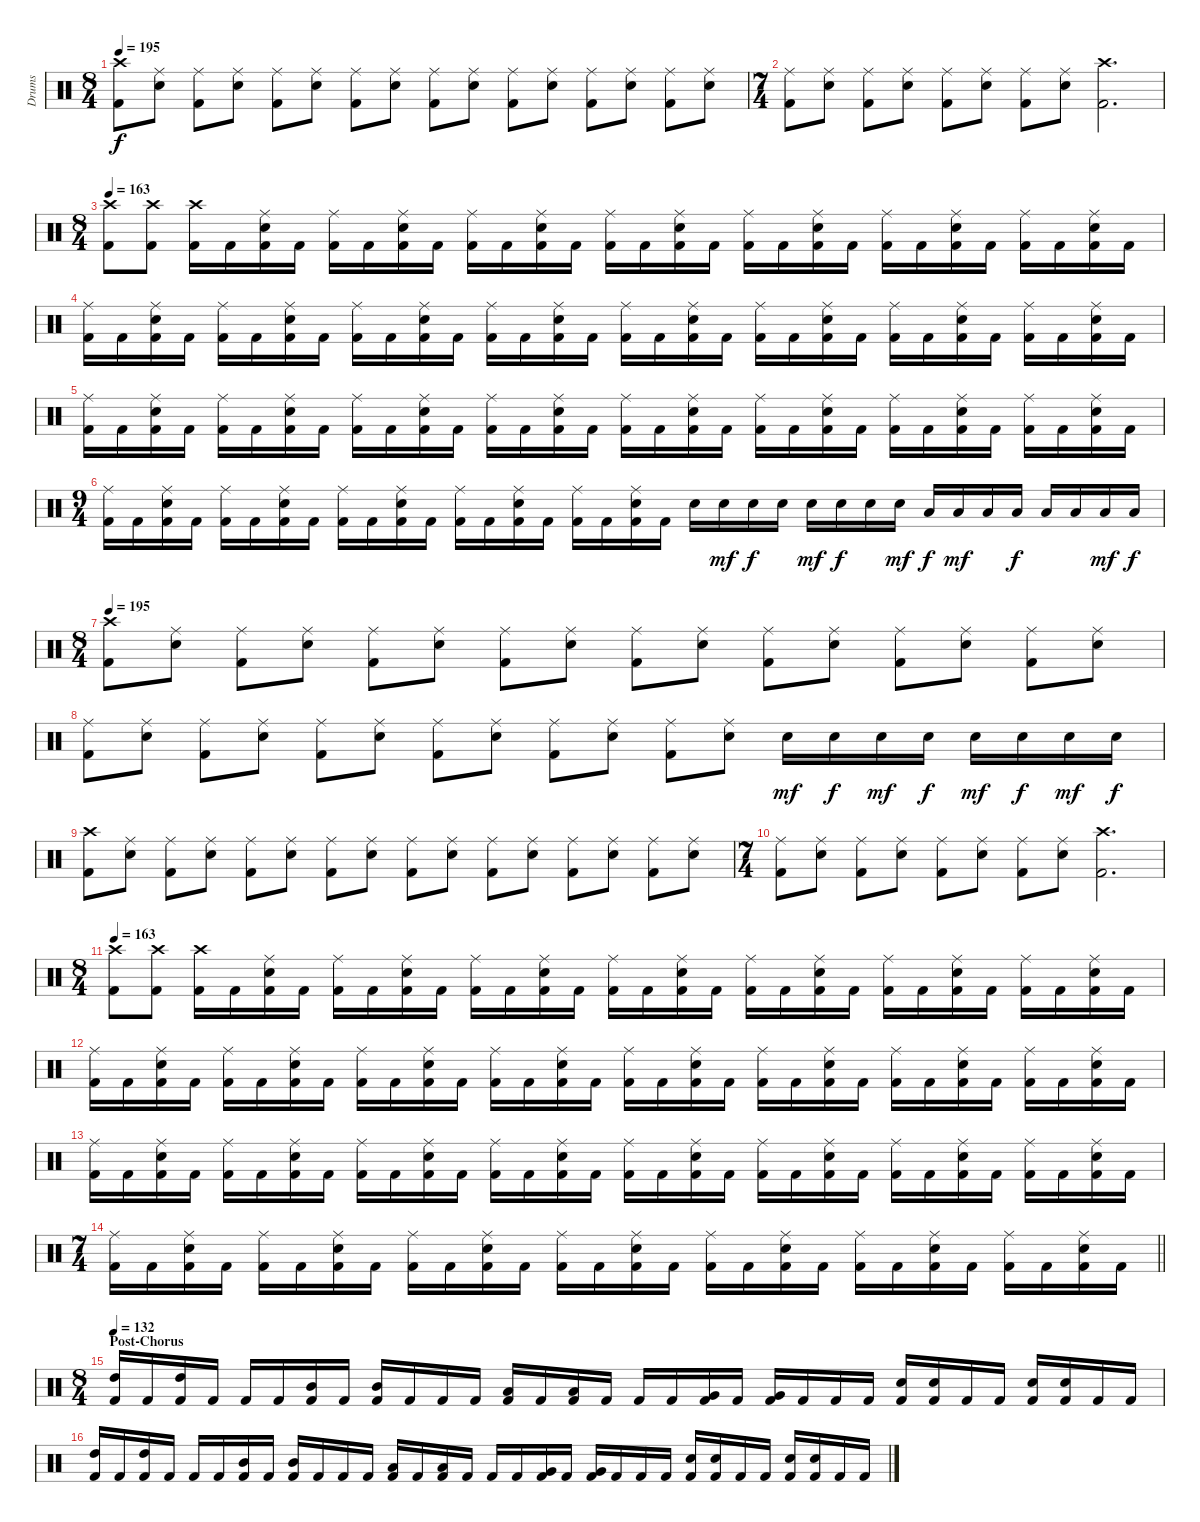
\track ("Drums" "Drums") {instrument percussion}
\staff {score}
\articulation defaults
\ts (8 4)
\tempo 195
\clef neutral
\ks c
("Crash high (hit)" "Kick (hit) 2").8{dy f} ("Ride (middle)" "Snare (hit) 2").8 ("Ride (middle)" "Kick (hit) 2").8 ("Ride (middle)" "Snare (hit) 2").8 ("Ride (middle)" "Kick (hit) 2").8 ("Ride (middle)" "Snare (hit) 2").8 ("Ride (middle)" "Kick (hit) 2").8 ("Ride (middle)" "Snare (hit) 2").8 ("Ride (middle)" "Kick (hit) 2").8 ("Ride (middle)" "Snare (hit) 2").8 ("Ride (middle)" "Kick (hit) 2").8 ("Ride (middle)" "Snare (hit) 2").8 ("Ride (middle)" "Kick (hit) 2").8 ("Ride (middle)" "Snare (hit) 2").8 ("Ride (middle)" "Kick (hit) 2").8 ("Ride (middle)" "Snare (hit) 2").8 |
\ts (7 4)
("Ride (middle)" "Kick (hit) 2").8 ("Ride (middle)" "Snare (hit) 2").8 ("Ride (middle)" "Kick (hit) 2").8 ("Ride (middle)" "Snare (hit) 2").8 ("Ride (middle)" "Kick (hit) 2").8 ("Ride (middle)" "Snare (hit) 2").8 ("Ride (middle)" "Kick (hit) 2").8 ("Ride (middle)" "Snare (hit) 2").8 ("Crash high (hit)" "Kick (hit) 2").2{d} |
\ts (8 4)
\tempo 163
("Crash high (hit)" "Kick (hit) 2").8 ("Crash high (hit)" "Kick (hit) 2").8 ("Crash high (hit)" "Kick (hit) 2").16 "Kick (hit) 2".16 ("Ride (middle)" "Snare (hit) 2" "Kick (hit) 2").16 "Kick (hit) 2".16 ("Ride (middle)" "Kick (hit) 2").16 "Kick (hit) 2".16 ("Ride (middle)" "Snare (hit) 2" "Kick (hit) 2").16 "Kick (hit) 2".16 ("Ride (middle)" "Kick (hit) 2").16 "Kick (hit) 2".16 ("Ride (middle)" "Snare (hit) 2" "Kick (hit) 2").16 "Kick (hit) 2".16 ("Ride (middle)" "Kick (hit) 2").16 "Kick (hit) 2".16 ("Ride (middle)" "Snare (hit) 2" "Kick (hit) 2").16 "Kick (hit) 2".16 ("Ride (middle)" "Kick (hit) 2").16 "Kick (hit) 2".16 ("Ride (middle)" "Snare (hit) 2" "Kick (hit) 2").16 "Kick (hit) 2".16 ("Ride (middle)" "Kick (hit) 2").16 "Kick (hit) 2".16 ("Ride (middle)" "Snare (hit) 2" "Kick (hit) 2").16 "Kick (hit) 2".16 ("Ride (middle)" "Kick (hit) 2").16 "Kick (hit) 2".16 ("Ride (middle)" "Snare (hit) 2" "Kick (hit) 2").16 "Kick (hit) 2".16 |
("Ride (middle)" "Kick (hit) 2").16 "Kick (hit) 2".16 ("Ride (middle)" "Snare (hit) 2" "Kick (hit) 2").16 "Kick (hit) 2".16 ("Ride (middle)" "Kick (hit) 2").16 "Kick (hit) 2".16 ("Ride (middle)" "Snare (hit) 2" "Kick (hit) 2").16 "Kick (hit) 2".16 ("Ride (middle)" "Kick (hit) 2").16 "Kick (hit) 2".16 ("Ride (middle)" "Snare (hit) 2" "Kick (hit) 2").16 "Kick (hit) 2".16 ("Ride (middle)" "Kick (hit) 2").16 "Kick (hit) 2".16 ("Ride (middle)" "Snare (hit) 2" "Kick (hit) 2").16 "Kick (hit) 2".16 ("Ride (middle)" "Kick (hit) 2").16 "Kick (hit) 2".16 ("Ride (middle)" "Snare (hit) 2" "Kick (hit) 2").16 "Kick (hit) 2".16 ("Ride (middle)" "Kick (hit) 2").16 "Kick (hit) 2".16 ("Ride (middle)" "Snare (hit) 2" "Kick (hit) 2").16 "Kick (hit) 2".16 ("Ride (middle)" "Kick (hit) 2").16 "Kick (hit) 2".16 ("Ride (middle)" "Snare (hit) 2" "Kick (hit) 2").16 "Kick (hit) 2".16 ("Ride (middle)" "Kick (hit) 2").16 "Kick (hit) 2".16 ("Ride (middle)" "Snare (hit) 2" "Kick (hit) 2").16 "Kick (hit) 2".16 |
("Ride (middle)" "Kick (hit) 2").16 "Kick (hit) 2".16 ("Ride (middle)" "Snare (hit) 2" "Kick (hit) 2").16 "Kick (hit) 2".16 ("Ride (middle)" "Kick (hit) 2").16 "Kick (hit) 2".16 ("Ride (middle)" "Snare (hit) 2" "Kick (hit) 2").16 "Kick (hit) 2".16 ("Ride (middle)" "Kick (hit) 2").16 "Kick (hit) 2".16 ("Ride (middle)" "Snare (hit) 2" "Kick (hit) 2").16 "Kick (hit) 2".16 ("Ride (middle)" "Kick (hit) 2").16 "Kick (hit) 2".16 ("Ride (middle)" "Snare (hit) 2" "Kick (hit) 2").16 "Kick (hit) 2".16 ("Ride (middle)" "Kick (hit) 2").16 "Kick (hit) 2".16 ("Ride (middle)" "Snare (hit) 2" "Kick (hit) 2").16 "Kick (hit) 2".16 ("Ride (middle)" "Kick (hit) 2").16 "Kick (hit) 2".16 ("Ride (middle)" "Snare (hit) 2" "Kick (hit) 2").16 "Kick (hit) 2".16 ("Ride (middle)" "Kick (hit) 2").16 "Kick (hit) 2".16 ("Ride (middle)" "Snare (hit) 2" "Kick (hit) 2").16 "Kick (hit) 2".16 ("Ride (middle)" "Kick (hit) 2").16 "Kick (hit) 2".16 ("Ride (middle)" "Snare (hit) 2" "Kick (hit) 2").16 "Kick (hit) 2".16 |
\ts (9 4)
("Ride (middle)" "Kick (hit) 2").16 "Kick (hit) 2".16 ("Ride (middle)" "Snare (hit) 2" "Kick (hit) 2").16 "Kick (hit) 2".16 ("Ride (middle)" "Kick (hit) 2").16 "Kick (hit) 2".16 ("Ride (middle)" "Snare (hit) 2" "Kick (hit) 2").16 "Kick (hit) 2".16 ("Ride (middle)" "Kick (hit) 2").16 "Kick (hit) 2".16 ("Ride (middle)" "Snare (hit) 2" "Kick (hit) 2").16 "Kick (hit) 2".16 ("Ride (middle)" "Kick (hit) 2").16 "Kick (hit) 2".16 ("Ride (middle)" "Snare (hit) 2" "Kick (hit) 2").16 "Kick (hit) 2".16 ("Ride (middle)" "Kick (hit) 2").16 "Kick (hit) 2".16 ("Ride (middle)" "Snare (hit) 2" "Kick (hit) 2").16 "Kick (hit) 2".16 "Snare (hit) 2".16 "Snare (hit) 2".16{dy mf} "Snare (hit) 2".16{dy f} "Snare (hit) 2".16 "Snare (hit) 2".16{dy mf} "Snare (hit) 2".16{dy f} "Snare (hit) 2".16 "Snare (hit) 2".16{dy mf} "Low Tom (hit)".16{dy f} "Low Tom (hit)".16{dy mf} "Low Tom (hit)".16 "Low Tom (hit)".16{dy f} "Low Tom (hit)".16 "Low Tom (hit)".16 "Low Tom (hit)".16{dy mf} "Low Tom (hit)".16{dy f} |
\ts (8 4)
\tempo 195
("Crash high (hit)" "Kick (hit) 2").8 ("Ride (middle)" "Snare (hit) 2").8 ("Ride (middle)" "Kick (hit) 2").8 ("Ride (middle)" "Snare (hit) 2").8 ("Ride (middle)" "Kick (hit) 2").8 ("Ride (middle)" "Snare (hit) 2").8 ("Ride (middle)" "Kick (hit) 2").8 ("Ride (middle)" "Snare (hit) 2").8 ("Ride (middle)" "Kick (hit) 2").8 ("Ride (middle)" "Snare (hit) 2").8 ("Ride (middle)" "Kick (hit) 2").8 ("Ride (middle)" "Snare (hit) 2").8 ("Ride (middle)" "Kick (hit) 2").8 ("Ride (middle)" "Snare (hit) 2").8 ("Ride (middle)" "Kick (hit) 2").8 ("Ride (middle)" "Snare (hit) 2").8 |
("Ride (middle)" "Kick (hit) 2").8 ("Ride (middle)" "Snare (hit) 2").8 ("Ride (middle)" "Kick (hit) 2").8 ("Ride (middle)" "Snare (hit) 2").8 ("Ride (middle)" "Kick (hit) 2").8 ("Ride (middle)" "Snare (hit) 2").8 ("Ride (middle)" "Kick (hit) 2").8 ("Ride (middle)" "Snare (hit) 2").8 ("Ride (middle)" "Kick (hit) 2").8 ("Ride (middle)" "Snare (hit) 2").8 ("Ride (middle)" "Kick (hit) 2").8 ("Ride (middle)" "Snare (hit) 2").8 "Snare (hit) 2".16{dy mf} "Snare (hit) 2".16{dy f} "Snare (hit) 2".16{dy mf} "Snare (hit) 2".16{dy f} "Snare (hit) 2".16{dy mf} "Snare (hit) 2".16{dy f} "Snare (hit) 2".16{dy mf} "Snare (hit) 2".16{dy f} |
("Crash high (hit)" "Kick (hit) 2").8 ("Ride (middle)" "Snare (hit) 2").8 ("Ride (middle)" "Kick (hit) 2").8 ("Ride (middle)" "Snare (hit) 2").8 ("Ride (middle)" "Kick (hit) 2").8 ("Ride (middle)" "Snare (hit) 2").8 ("Ride (middle)" "Kick (hit) 2").8 ("Ride (middle)" "Snare (hit) 2").8 ("Ride (middle)" "Kick (hit) 2").8 ("Ride (middle)" "Snare (hit) 2").8 ("Ride (middle)" "Kick (hit) 2").8 ("Ride (middle)" "Snare (hit) 2").8 ("Ride (middle)" "Kick (hit) 2").8 ("Ride (middle)" "Snare (hit) 2").8 ("Ride (middle)" "Kick (hit) 2").8 ("Ride (middle)" "Snare (hit) 2").8 |
\ts (7 4)
("Ride (middle)" "Kick (hit) 2").8 ("Ride (middle)" "Snare (hit) 2").8 ("Ride (middle)" "Kick (hit) 2").8 ("Ride (middle)" "Snare (hit) 2").8 ("Ride (middle)" "Kick (hit) 2").8 ("Ride (middle)" "Snare (hit) 2").8 ("Ride (middle)" "Kick (hit) 2").8 ("Ride (middle)" "Snare (hit) 2").8 ("Crash high (hit)" "Kick (hit) 2").2{d} |
\ts (8 4)
\tempo 163
("Crash high (hit)" "Kick (hit) 2").8 ("Crash high (hit)" "Kick (hit) 2").8 ("Crash high (hit)" "Kick (hit) 2").16 "Kick (hit) 2".16 ("Ride (middle)" "Snare (hit) 2" "Kick (hit) 2").16 "Kick (hit) 2".16 ("Ride (middle)" "Kick (hit) 2").16 "Kick (hit) 2".16 ("Ride (middle)" "Snare (hit) 2" "Kick (hit) 2").16 "Kick (hit) 2".16 ("Ride (middle)" "Kick (hit) 2").16 "Kick (hit) 2".16 ("Ride (middle)" "Snare (hit) 2" "Kick (hit) 2").16 "Kick (hit) 2".16 ("Ride (middle)" "Kick (hit) 2").16 "Kick (hit) 2".16 ("Ride (middle)" "Snare (hit) 2" "Kick (hit) 2").16 "Kick (hit) 2".16 ("Ride (middle)" "Kick (hit) 2").16 "Kick (hit) 2".16 ("Ride (middle)" "Snare (hit) 2" "Kick (hit) 2").16 "Kick (hit) 2".16 ("Ride (middle)" "Kick (hit) 2").16 "Kick (hit) 2".16 ("Ride (middle)" "Snare (hit) 2" "Kick (hit) 2").16 "Kick (hit) 2".16 ("Ride (middle)" "Kick (hit) 2").16 "Kick (hit) 2".16 ("Ride (middle)" "Snare (hit) 2" "Kick (hit) 2").16 "Kick (hit) 2".16 |
("Ride (middle)" "Kick (hit) 2").16 "Kick (hit) 2".16 ("Ride (middle)" "Snare (hit) 2" "Kick (hit) 2").16 "Kick (hit) 2".16 ("Ride (middle)" "Kick (hit) 2").16 "Kick (hit) 2".16 ("Ride (middle)" "Snare (hit) 2" "Kick (hit) 2").16 "Kick (hit) 2".16 ("Ride (middle)" "Kick (hit) 2").16 "Kick (hit) 2".16 ("Ride (middle)" "Snare (hit) 2" "Kick (hit) 2").16 "Kick (hit) 2".16 ("Ride (middle)" "Kick (hit) 2").16 "Kick (hit) 2".16 ("Ride (middle)" "Snare (hit) 2" "Kick (hit) 2").16 "Kick (hit) 2".16 ("Ride (middle)" "Kick (hit) 2").16 "Kick (hit) 2".16 ("Ride (middle)" "Snare (hit) 2" "Kick (hit) 2").16 "Kick (hit) 2".16 ("Ride (middle)" "Kick (hit) 2").16 "Kick (hit) 2".16 ("Ride (middle)" "Snare (hit) 2" "Kick (hit) 2").16 "Kick (hit) 2".16 ("Ride (middle)" "Kick (hit) 2").16 "Kick (hit) 2".16 ("Ride (middle)" "Snare (hit) 2" "Kick (hit) 2").16 "Kick (hit) 2".16 ("Ride (middle)" "Kick (hit) 2").16 "Kick (hit) 2".16 ("Ride (middle)" "Snare (hit) 2" "Kick (hit) 2").16 "Kick (hit) 2".16 |
("Ride (middle)" "Kick (hit) 2").16 "Kick (hit) 2".16 ("Ride (middle)" "Snare (hit) 2" "Kick (hit) 2").16 "Kick (hit) 2".16 ("Ride (middle)" "Kick (hit) 2").16 "Kick (hit) 2".16 ("Ride (middle)" "Snare (hit) 2" "Kick (hit) 2").16 "Kick (hit) 2".16 ("Ride (middle)" "Kick (hit) 2").16 "Kick (hit) 2".16 ("Ride (middle)" "Snare (hit) 2" "Kick (hit) 2").16 "Kick (hit) 2".16 ("Ride (middle)" "Kick (hit) 2").16 "Kick (hit) 2".16 ("Ride (middle)" "Snare (hit) 2" "Kick (hit) 2").16 "Kick (hit) 2".16 ("Ride (middle)" "Kick (hit) 2").16 "Kick (hit) 2".16 ("Ride (middle)" "Snare (hit) 2" "Kick (hit) 2").16 "Kick (hit) 2".16 ("Ride (middle)" "Kick (hit) 2").16 "Kick (hit) 2".16 ("Ride (middle)" "Snare (hit) 2" "Kick (hit) 2").16 "Kick (hit) 2".16 ("Ride (middle)" "Kick (hit) 2").16 "Kick (hit) 2".16 ("Ride (middle)" "Snare (hit) 2" "Kick (hit) 2").16 "Kick (hit) 2".16 ("Ride (middle)" "Kick (hit) 2").16 "Kick (hit) 2".16 ("Ride (middle)" "Snare (hit) 2" "Kick (hit) 2").16 "Kick (hit) 2".16 |
\ts (7 4)
\barLineRight lightlight
("Ride (middle)" "Kick (hit) 2").16 "Kick (hit) 2".16 ("Ride (middle)" "Snare (hit) 2" "Kick (hit) 2").16 "Kick (hit) 2".16 ("Ride (middle)" "Kick (hit) 2").16 "Kick (hit) 2".16 ("Ride (middle)" "Snare (hit) 2" "Kick (hit) 2").16 "Kick (hit) 2".16 ("Ride (middle)" "Kick (hit) 2").16 "Kick (hit) 2".16 ("Ride (middle)" "Snare (hit) 2" "Kick (hit) 2").16 "Kick (hit) 2".16 ("Ride (middle)" "Kick (hit) 2").16 "Kick (hit) 2".16 ("Ride (middle)" "Snare (hit) 2" "Kick (hit) 2").16 "Kick (hit) 2".16 ("Ride (middle)" "Kick (hit) 2").16 "Kick (hit) 2".16 ("Ride (middle)" "Snare (hit) 2" "Kick (hit) 2").16 "Kick (hit) 2".16 ("Ride (middle)" "Kick (hit) 2").16 "Kick (hit) 2".16 ("Ride (middle)" "Snare (hit) 2" "Kick (hit) 2").16 "Kick (hit) 2".16 ("Ride (middle)" "Kick (hit) 2").16 "Kick (hit) 2".16 ("Ride (middle)" "Snare (hit) 2" "Kick (hit) 2").16 "Kick (hit) 2".16 |
\ts (8 4)
\section ("" "Post-Chorus")
\tempo 132
("High Tom (hit)" "Kick (hit) 2").16 "Kick (hit) 2".16 ("High Tom (hit)" "Kick (hit) 2").16 "Kick (hit) 2".16 "Kick (hit) 2".16 "Kick (hit) 2".16 ("Mid Tom (hit)" "Kick (hit) 2").16 "Kick (hit) 2".16 ("Mid Tom (hit)" "Kick (hit) 2").16 "Kick (hit) 2".16 "Kick (hit) 2".16 "Kick (hit) 2".16 ("Low Tom (hit)" "Kick (hit) 2").16 "Kick (hit) 2".16 ("Low Tom (hit)" "Kick (hit) 2").16 "Kick (hit) 2".16 "Kick (hit) 2".16 "Kick (hit) 2".16 ("Very Low Tom (hit)" "Kick (hit) 2").16 "Kick (hit) 2".16 ("Very Low Tom (hit)" "Kick (hit) 2").16 "Kick (hit) 2".16 "Kick (hit) 2".16 "Kick (hit) 2".16 ("Snare (hit) 2" "Kick (hit) 2").16 ("Snare (hit) 2" "Kick (hit) 2").16 "Kick (hit) 2".16 "Kick (hit) 2".16 ("Snare (hit) 2" "Kick (hit) 2").16 ("Snare (hit) 2" "Kick (hit) 2").16 "Kick (hit) 2".16 "Kick (hit) 2".16 |
("High Tom (hit)" "Kick (hit) 2").16 "Kick (hit) 2".16 ("High Tom (hit)" "Kick (hit) 2").16 "Kick (hit) 2".16 "Kick (hit) 2".16 "Kick (hit) 2".16 ("Mid Tom (hit)" "Kick (hit) 2").16 "Kick (hit) 2".16 ("Mid Tom (hit)" "Kick (hit) 2").16 "Kick (hit) 2".16 "Kick (hit) 2".16 "Kick (hit) 2".16 ("Low Tom (hit)" "Kick (hit) 2").16 "Kick (hit) 2".16 ("Low Tom (hit)" "Kick (hit) 2").16 "Kick (hit) 2".16 "Kick (hit) 2".16 "Kick (hit) 2".16 ("Very Low Tom (hit)" "Kick (hit) 2").16 "Kick (hit) 2".16 ("Very Low Tom (hit)" "Kick (hit) 2").16 "Kick (hit) 2".16 "Kick (hit) 2".16 "Kick (hit) 2".16 ("Snare (hit) 2" "Kick (hit) 2").16 ("Snare (hit) 2" "Kick (hit) 2").16 "Kick (hit) 2".16 "Kick (hit) 2".16 ("Snare (hit) 2" "Kick (hit) 2").16 ("Snare (hit) 2" "Kick (hit) 2").16 "Kick (hit) 2".16 "Kick (hit) 2".16
